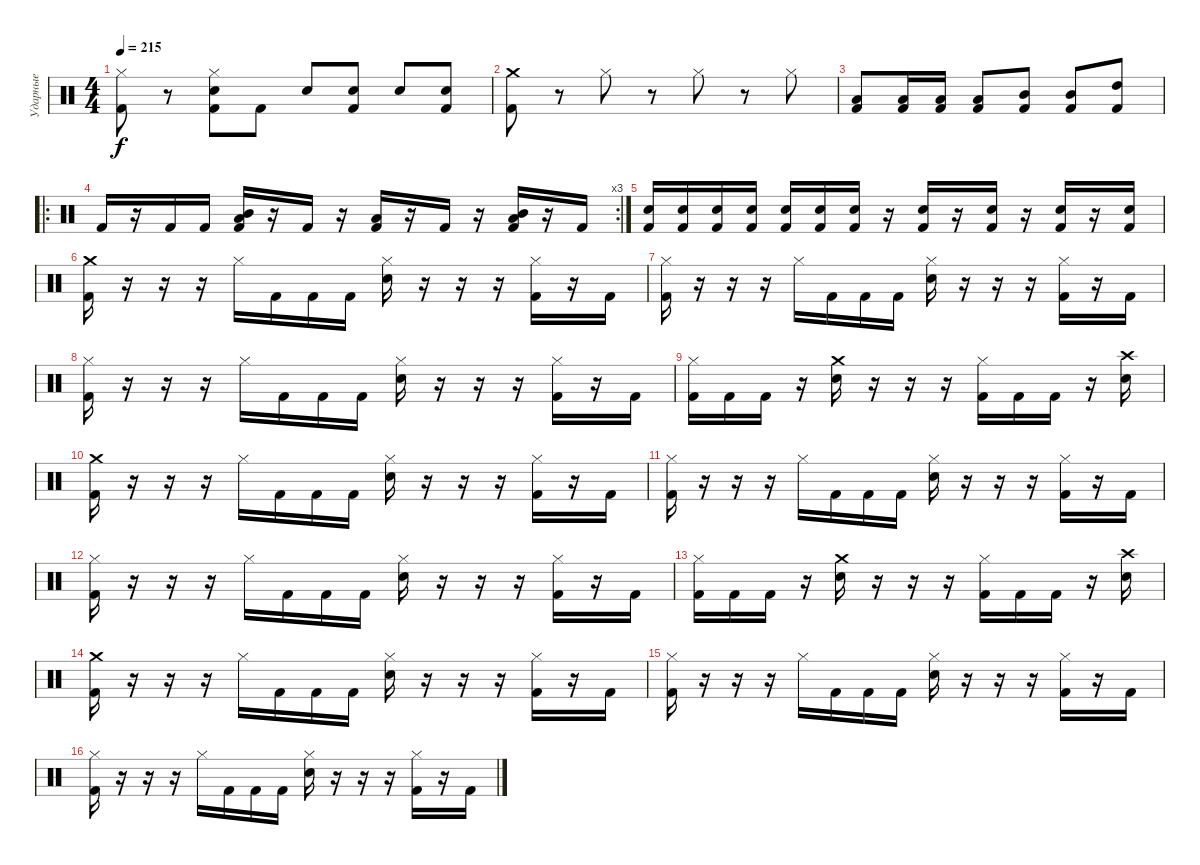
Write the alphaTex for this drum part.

\track ("Ударные" "Ударные") {instrument percussion}
\staff {score}
\articulation defaults
\ts (4 4)
\tempo 215
\clef neutral
\ks c
("Hi-Hat (closed)" "Kick (hit) 2").8{dy f} r.8 ("Hi-Hat (closed)" "Snare (hit) 2" "Kick (hit) 2").8 "Kick (hit) 2".8 "Snare (hit) 2".8 ("Snare (hit) 2" "Kick (hit) 2").8 "Snare (hit) 2".8 ("Snare (hit) 2" "Kick (hit) 2").8 |
("Crash medium (hit)" "Kick (hit) 2").8 r.8 "Hi-Hat (closed)".8 r.8 "Hi-Hat (closed)".8 r.8 "Hi-Hat (closed)".8 |
("Low Tom (hit)" "Kick (hit) 2").8 ("Low Tom (hit)" "Kick (hit) 2").16 ("Low Tom (hit)" "Kick (hit) 2").16 ("Low Tom (hit)" "Kick (hit) 2").8 ("Mid Tom (hit)" "Kick (hit) 2").8 ("Mid Tom (hit)" "Kick (hit) 2").8 ("High Tom (hit)" "Kick (hit) 2").8 |
\ro
\rc 3 "Kick (hit) 2".16
r.16 "Kick (hit) 2".16 "Kick (hit) 2".16 ("Low Tom (hit)" "Mid Tom (hit)" "Kick (hit) 2").16 r.16 "Kick (hit) 2".16 r.16 ("Low Tom (hit)" "Kick (hit) 2").16 r.16 "Kick (hit) 2".16 r.16 ("Low Tom (hit)" "Mid Tom (hit)" "Kick (hit) 2").16 r.16 "Kick (hit) 2".16 |
("Snare (hit) 2" "Kick (hit) 2").16 ("Snare (hit) 2" "Kick (hit) 2").16 ("Snare (hit) 2" "Kick (hit) 2").16 ("Snare (hit) 2" "Kick (hit) 2").16 ("Snare (hit) 2" "Kick (hit) 2").16 ("Snare (hit) 2" "Kick (hit) 2").16 ("Snare (hit) 2" "Kick (hit) 2").16 r.16 ("Snare (hit) 2" "Kick (hit) 2").16 r.16 ("Snare (hit) 2" "Kick (hit) 2").16 r.16 ("Snare (hit) 2" "Kick (hit) 2").16 r.16 ("Snare (hit) 2" "Kick (hit) 2").16 |
("Crash medium (hit)" "Kick (hit) 2").16 r.16 r.16 r.16 "Hi-Hat (closed)".16 "Kick (hit) 2".16 "Kick (hit) 2".16 "Kick (hit) 2".16 ("Hi-Hat (closed)" "Snare (hit) 2").16 r.16 r.16 r.16 ("Hi-Hat (closed)" "Kick (hit) 2").16 r.16 "Kick (hit) 2".16 |
("Hi-Hat (closed)" "Kick (hit) 2").16 r.16 r.16 r.16 "Hi-Hat (closed)".16 "Kick (hit) 2".16 "Kick (hit) 2".16 "Kick (hit) 2".16 ("Hi-Hat (closed)" "Snare (hit) 2").16 r.16 r.16 r.16 ("Hi-Hat (closed)" "Kick (hit) 2").16 r.16 "Kick (hit) 2".16 |
("Hi-Hat (closed)" "Kick (hit) 2").16 r.16 r.16 r.16 "Hi-Hat (closed)".16 "Kick (hit) 2".16 "Kick (hit) 2".16 "Kick (hit) 2".16 ("Hi-Hat (closed)" "Snare (hit) 2").16 r.16 r.16 r.16 ("Hi-Hat (closed)" "Kick (hit) 2").16 r.16 "Kick (hit) 2".16 |
("Hi-Hat (closed)" "Kick (hit) 2").16 "Kick (hit) 2".16 "Kick (hit) 2".16 r.16 ("Crash medium (hit)" "Snare (hit) 2").16 r.16 r.16 r.16 ("Hi-Hat (closed)" "Kick (hit) 2").16 "Kick (hit) 2".16 "Kick (hit) 2".16 r.16 ("Crash high (hit)" "Snare (hit) 2").16 |
("Crash medium (hit)" "Kick (hit) 2").16 r.16 r.16 r.16 "Hi-Hat (closed)".16 "Kick (hit) 2".16 "Kick (hit) 2".16 "Kick (hit) 2".16 ("Hi-Hat (closed)" "Snare (hit) 2").16 r.16 r.16 r.16 ("Hi-Hat (closed)" "Kick (hit) 2").16 r.16 "Kick (hit) 2".16 |
("Hi-Hat (closed)" "Kick (hit) 2").16 r.16 r.16 r.16 "Hi-Hat (closed)".16 "Kick (hit) 2".16 "Kick (hit) 2".16 "Kick (hit) 2".16 ("Hi-Hat (closed)" "Snare (hit) 2").16 r.16 r.16 r.16 ("Hi-Hat (closed)" "Kick (hit) 2").16 r.16 "Kick (hit) 2".16 |
("Hi-Hat (closed)" "Kick (hit) 2").16 r.16 r.16 r.16 "Hi-Hat (closed)".16 "Kick (hit) 2".16 "Kick (hit) 2".16 "Kick (hit) 2".16 ("Hi-Hat (closed)" "Snare (hit) 2").16 r.16 r.16 r.16 ("Hi-Hat (closed)" "Kick (hit) 2").16 r.16 "Kick (hit) 2".16 |
("Hi-Hat (closed)" "Kick (hit) 2").16 "Kick (hit) 2".16 "Kick (hit) 2".16 r.16 ("Crash medium (hit)" "Snare (hit) 2").16 r.16 r.16 r.16 ("Hi-Hat (closed)" "Kick (hit) 2").16 "Kick (hit) 2".16 "Kick (hit) 2".16 r.16 ("Crash high (hit)" "Snare (hit) 2").16 |
("Crash medium (hit)" "Kick (hit) 2").16 r.16 r.16 r.16 "Hi-Hat (closed)".16 "Kick (hit) 2".16 "Kick (hit) 2".16 "Kick (hit) 2".16 ("Hi-Hat (closed)" "Snare (hit) 2").16 r.16 r.16 r.16 ("Hi-Hat (closed)" "Kick (hit) 2").16 r.16 "Kick (hit) 2".16 |
("Hi-Hat (closed)" "Kick (hit) 2").16 r.16 r.16 r.16 "Hi-Hat (closed)".16 "Kick (hit) 2".16 "Kick (hit) 2".16 "Kick (hit) 2".16 ("Hi-Hat (closed)" "Snare (hit) 2").16 r.16 r.16 r.16 ("Hi-Hat (closed)" "Kick (hit) 2").16 r.16 "Kick (hit) 2".16 |
("Hi-Hat (closed)" "Kick (hit) 2").16 r.16 r.16 r.16 "Hi-Hat (closed)".16 "Kick (hit) 2".16 "Kick (hit) 2".16 "Kick (hit) 2".16 ("Hi-Hat (closed)" "Snare (hit) 2").16 r.16 r.16 r.16 ("Hi-Hat (closed)" "Kick (hit) 2").16 r.16 "Kick (hit) 2".16
